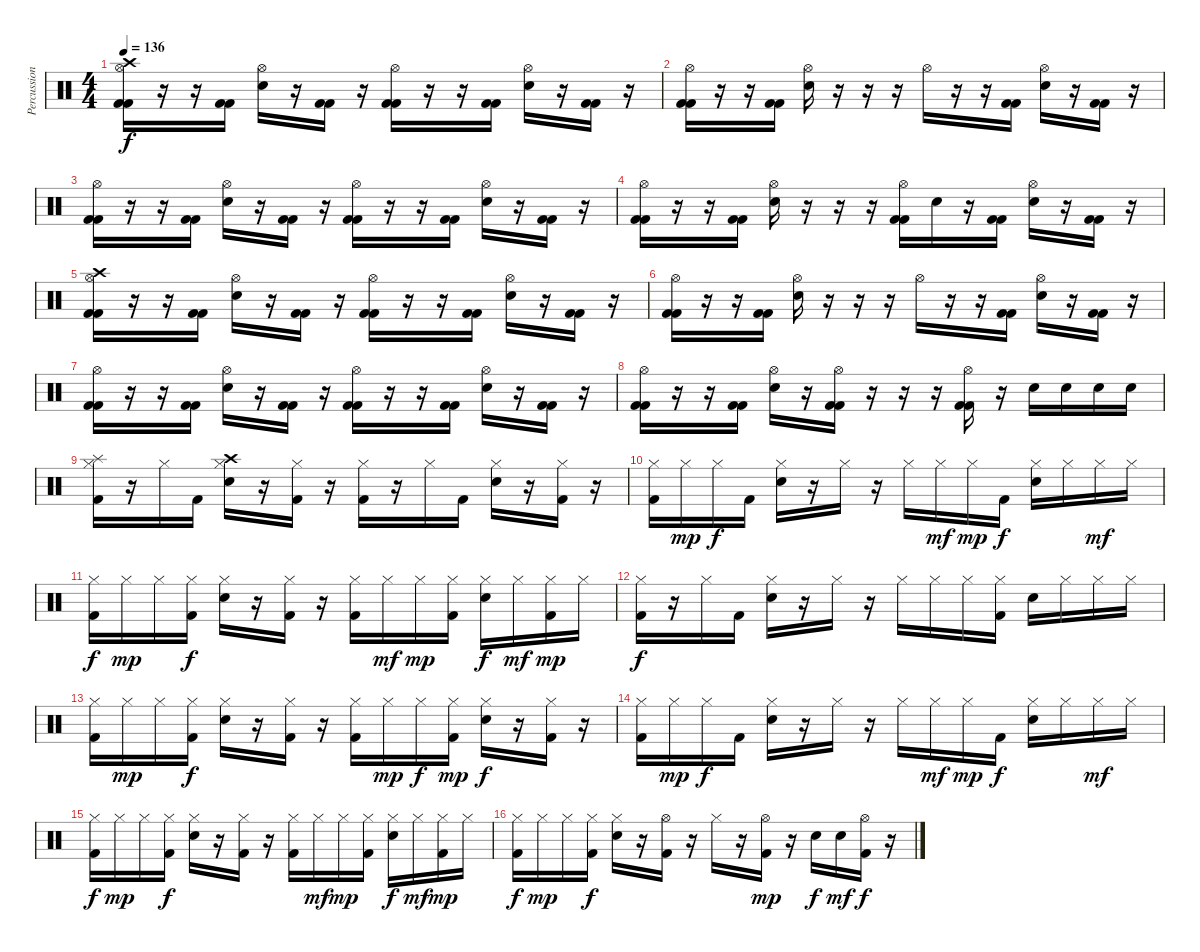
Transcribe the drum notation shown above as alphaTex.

\track ("Percussion" "Percussion") {instrument percussion}
\staff {score}
\articulation defaults
\ts (4 4)
\tempo 136
\clef neutral
\ks c
("Hi-Hat (open)" "Crash high (hit)" "Kick (hit) 2" "Kick (hit) 2").16{dy f} r.16 r.16 ("Kick (hit) 2" "Kick (hit) 2").16 ("Hi-Hat (open)" "Electric Snare (hit)").16 r.16 ("Kick (hit) 2" "Kick (hit) 2").16 r.16 ("Hi-Hat (open)" "Kick (hit) 2" "Kick (hit) 2").16 r.16 r.16 ("Kick (hit) 2" "Kick (hit) 2").16 ("Hi-Hat (open)" "Electric Snare (hit)").16 r.16 ("Kick (hit) 2" "Kick (hit) 2").16 r.16 |
("Hi-Hat (open)" "Kick (hit) 2" "Kick (hit) 2").16 r.16 r.16 ("Kick (hit) 2" "Kick (hit) 2").16 ("Hi-Hat (open)" "Electric Snare (hit)").16 r.16 r.16 r.16 "Hi-Hat (open)".16 r.16 r.16 ("Kick (hit) 2" "Kick (hit) 2").16 ("Hi-Hat (open)" "Electric Snare (hit)").16 r.16 ("Kick (hit) 2" "Kick (hit) 2").16 r.16 |
("Hi-Hat (open)" "Kick (hit) 2" "Kick (hit) 2").16 r.16 r.16 ("Kick (hit) 2" "Kick (hit) 2").16 ("Hi-Hat (open)" "Electric Snare (hit)").16 r.16 ("Kick (hit) 2" "Kick (hit) 2").16 r.16 ("Hi-Hat (open)" "Kick (hit) 2" "Kick (hit) 2").16 r.16 r.16 ("Kick (hit) 2" "Kick (hit) 2").16 ("Hi-Hat (open)" "Electric Snare (hit)").16 r.16 ("Kick (hit) 2" "Kick (hit) 2").16 r.16 |
("Hi-Hat (open)" "Kick (hit) 2" "Kick (hit) 2").16 r.16 r.16 ("Kick (hit) 2" "Kick (hit) 2").16 ("Hi-Hat (open)" "Electric Snare (hit)").16 r.16 r.16 r.16 ("Hi-Hat (open)" "Kick (hit) 2" "Kick (hit) 2").16 "Electric Snare (hit)".16 r.16 ("Kick (hit) 2" "Kick (hit) 2").16 ("Hi-Hat (open)" "Electric Snare (hit)").16 r.16 ("Kick (hit) 2" "Kick (hit) 2").16 r.16 |
("Hi-Hat (open)" "Crash high (hit)" "Kick (hit) 2" "Kick (hit) 2").16 r.16 r.16 ("Kick (hit) 2" "Kick (hit) 2").16 ("Hi-Hat (open)" "Electric Snare (hit)").16 r.16 ("Kick (hit) 2" "Kick (hit) 2").16 r.16 ("Hi-Hat (open)" "Kick (hit) 2" "Kick (hit) 2").16 r.16 r.16 ("Kick (hit) 2" "Kick (hit) 2").16 ("Hi-Hat (open)" "Electric Snare (hit)").16 r.16 ("Kick (hit) 2" "Kick (hit) 2").16 r.16 |
("Hi-Hat (open)" "Kick (hit) 2" "Kick (hit) 2").16 r.16 r.16 ("Kick (hit) 2" "Kick (hit) 2").16 ("Hi-Hat (open)" "Electric Snare (hit)").16 r.16 r.16 r.16 "Hi-Hat (open)".16 r.16 r.16 ("Kick (hit) 2" "Kick (hit) 2").16 ("Hi-Hat (open)" "Electric Snare (hit)").16 r.16 ("Kick (hit) 2" "Kick (hit) 2").16 r.16 |
("Hi-Hat (open)" "Kick (hit) 2" "Kick (hit) 2").16 r.16 r.16 ("Kick (hit) 2" "Kick (hit) 2").16 ("Hi-Hat (open)" "Electric Snare (hit)").16 r.16 ("Kick (hit) 2" "Kick (hit) 2").16 r.16 ("Hi-Hat (open)" "Kick (hit) 2" "Kick (hit) 2").16 r.16 r.16 ("Kick (hit) 2" "Kick (hit) 2").16 ("Hi-Hat (open)" "Electric Snare (hit)").16 r.16 ("Kick (hit) 2" "Kick (hit) 2").16 r.16 |
("Hi-Hat (open)" "Kick (hit) 2" "Kick (hit) 2").16 r.16 r.16 ("Kick (hit) 2" "Kick (hit) 2").16 ("Hi-Hat (open)" "Electric Snare (hit)").16 r.16 ("Hi-Hat (open)" "Kick (hit) 2" "Kick (hit) 2").16 r.16 r.16 r.16 ("Hi-Hat (open)" "Kick (hit) 2" "Kick (hit) 2").16 r.16 "Electric Snare (hit)".16 "Electric Snare (hit)".16 "Electric Snare (hit)".16 "Electric Snare (hit)".16 |
("Hi-Hat (closed)" "Splash (hit)" "Kick (hit) 2").16 r.16 "Hi-Hat (closed)".16 "Kick (hit) 2".16 ("Hi-Hat (closed)" "Crash high (hit)" "Electric Snare (hit)").16 r.16 ("Hi-Hat (closed)" "Kick (hit) 2").16 r.16 ("Hi-Hat (closed)" "Kick (hit) 2").16 r.16 "Hi-Hat (closed)".16 "Kick (hit) 2".16 ("Hi-Hat (closed)" "Electric Snare (hit)").16 r.16 ("Hi-Hat (closed)" "Kick (hit) 2").16 r.16 |
("Hi-Hat (closed)" "Kick (hit) 2").16 "Hi-Hat (closed)".16{dy mp} "Hi-Hat (closed)".16{dy f} "Kick (hit) 2".16 ("Hi-Hat (closed)" "Electric Snare (hit)").16 r.16 "Hi-Hat (closed)".16 r.16 "Hi-Hat (closed)".16 "Hi-Hat (closed)".16{dy mf} "Hi-Hat (closed)".16{dy mp} "Kick (hit) 2".16{dy f} ("Hi-Hat (closed)" "Electric Snare (hit)").16 "Hi-Hat (closed)".16 "Hi-Hat (closed)".16{dy mf} "Hi-Hat (closed)".16 |
("Hi-Hat (closed)" "Kick (hit) 2").16{dy f} "Hi-Hat (closed)".16{dy mp} "Hi-Hat (closed)".16 ("Hi-Hat (closed)" "Kick (hit) 2").16{dy f} ("Hi-Hat (closed)" "Electric Snare (hit)").16 r.16 ("Hi-Hat (closed)" "Kick (hit) 2").16 r.16 ("Hi-Hat (closed)" "Kick (hit) 2").16 "Hi-Hat (closed)".16{dy mf} "Hi-Hat (closed)".16{dy mp} ("Hi-Hat (closed)" "Kick (hit) 2").16 ("Hi-Hat (closed)" "Electric Snare (hit)").16{dy f} "Hi-Hat (closed)".16{dy mf} ("Hi-Hat (closed)" "Kick (hit) 2").16{dy mp} "Hi-Hat (closed)".16 |
("Hi-Hat (closed)" "Kick (hit) 2").16{dy f} r.16 "Hi-Hat (closed)".16 "Kick (hit) 2".16 ("Hi-Hat (closed)" "Electric Snare (hit)").16 r.16 "Hi-Hat (closed)".16 r.16 "Hi-Hat (closed)".16 "Hi-Hat (closed)".16 "Hi-Hat (closed)".16 ("Hi-Hat (closed)" "Kick (hit) 2").16 "Electric Snare (hit)".16 "Hi-Hat (closed)".16 "Hi-Hat (closed)".16 "Hi-Hat (closed)".16 |
("Hi-Hat (closed)" "Kick (hit) 2").16 "Hi-Hat (closed)".16{dy mp} "Hi-Hat (closed)".16 ("Hi-Hat (closed)" "Kick (hit) 2").16{dy f} ("Hi-Hat (closed)" "Electric Snare (hit)").16 r.16 ("Hi-Hat (closed)" "Kick (hit) 2").16 r.16 ("Hi-Hat (closed)" "Kick (hit) 2").16 "Hi-Hat (closed)".16{dy mp} "Hi-Hat (closed)".16{dy f} ("Hi-Hat (closed)" "Kick (hit) 2").16{dy mp} ("Hi-Hat (closed)" "Electric Snare (hit)").16{dy f} r.16 ("Hi-Hat (closed)" "Kick (hit) 2").16 r.16 |
("Hi-Hat (closed)" "Kick (hit) 2").16 "Hi-Hat (closed)".16{dy mp} "Hi-Hat (closed)".16{dy f} "Kick (hit) 2".16 ("Hi-Hat (closed)" "Electric Snare (hit)").16 r.16 "Hi-Hat (closed)".16 r.16 "Hi-Hat (closed)".16 "Hi-Hat (closed)".16{dy mf} "Hi-Hat (closed)".16{dy mp} "Kick (hit) 2".16{dy f} ("Hi-Hat (closed)" "Electric Snare (hit)").16 "Hi-Hat (closed)".16 "Hi-Hat (closed)".16{dy mf} "Hi-Hat (closed)".16 |
("Hi-Hat (closed)" "Kick (hit) 2").16{dy f} "Hi-Hat (closed)".16{dy mp} "Hi-Hat (closed)".16 ("Hi-Hat (closed)" "Kick (hit) 2").16{dy f} ("Hi-Hat (closed)" "Electric Snare (hit)").16 r.16 ("Hi-Hat (closed)" "Kick (hit) 2").16 r.16 ("Hi-Hat (closed)" "Kick (hit) 2").16 "Hi-Hat (closed)".16{dy mf} "Hi-Hat (closed)".16{dy mp} ("Hi-Hat (closed)" "Kick (hit) 2").16 ("Hi-Hat (closed)" "Electric Snare (hit)").16{dy f} "Hi-Hat (closed)".16{dy mf} ("Hi-Hat (closed)" "Kick (hit) 2").16{dy mp} "Hi-Hat (closed)".16 |
("Hi-Hat (closed)" "Kick (hit) 2").16{dy f} "Hi-Hat (closed)".16{dy mp} "Hi-Hat (closed)".16 ("Hi-Hat (closed)" "Kick (hit) 2").16{dy f} ("Hi-Hat (closed)" "Electric Snare (hit)").16 r.16 ("Hi-Hat (open)" "Kick (hit) 2").16 r.16 "Hi-Hat (closed)".16 r.16 ("Hi-Hat (open)" "Kick (hit) 2").16{dy mp} r.16 "Electric Snare (hit)".16{dy f} "Electric Snare (hit)".16{dy mf} ("Hi-Hat (open)" "Kick (hit) 2").16{dy f} r.16
